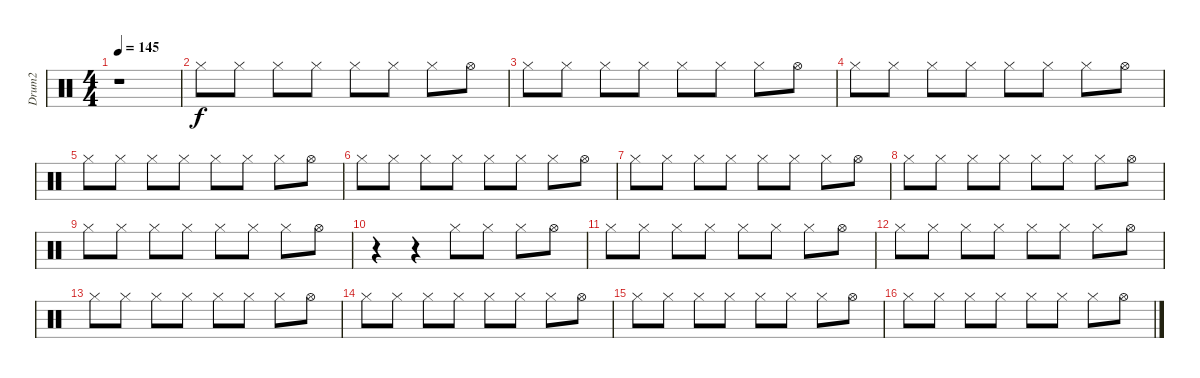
\track ("Drum2" "Drum2") {instrument percussion}
\staff {score}
\articulation defaults
\ts (4 4)
\tempo 145
\clef neutral
\ks c
r.1{dy f} |
"Hi-Hat (closed)".8 "Hi-Hat (closed)".8 "Hi-Hat (closed)".8 "Hi-Hat (closed)".8 "Hi-Hat (closed)".8 "Hi-Hat (closed)".8 "Hi-Hat (closed)".8 "Hi-Hat (open)".8 |
"Hi-Hat (closed)".8 "Hi-Hat (closed)".8 "Hi-Hat (closed)".8 "Hi-Hat (closed)".8 "Hi-Hat (closed)".8 "Hi-Hat (closed)".8 "Hi-Hat (closed)".8 "Hi-Hat (open)".8 |
"Hi-Hat (closed)".8 "Hi-Hat (closed)".8 "Hi-Hat (closed)".8 "Hi-Hat (closed)".8 "Hi-Hat (closed)".8 "Hi-Hat (closed)".8 "Hi-Hat (closed)".8 "Hi-Hat (open)".8 |
"Hi-Hat (closed)".8 "Hi-Hat (closed)".8 "Hi-Hat (closed)".8 "Hi-Hat (closed)".8 "Hi-Hat (closed)".8 "Hi-Hat (closed)".8 "Hi-Hat (closed)".8 "Hi-Hat (open)".8 |
"Hi-Hat (closed)".8 "Hi-Hat (closed)".8 "Hi-Hat (closed)".8 "Hi-Hat (closed)".8 "Hi-Hat (closed)".8 "Hi-Hat (closed)".8 "Hi-Hat (closed)".8 "Hi-Hat (open)".8 |
"Hi-Hat (closed)".8 "Hi-Hat (closed)".8 "Hi-Hat (closed)".8 "Hi-Hat (closed)".8 "Hi-Hat (closed)".8 "Hi-Hat (closed)".8 "Hi-Hat (closed)".8 "Hi-Hat (open)".8 |
"Hi-Hat (closed)".8 "Hi-Hat (closed)".8 "Hi-Hat (closed)".8 "Hi-Hat (closed)".8 "Hi-Hat (closed)".8 "Hi-Hat (closed)".8 "Hi-Hat (closed)".8 "Hi-Hat (open)".8 |
"Hi-Hat (closed)".8 "Hi-Hat (closed)".8 "Hi-Hat (closed)".8 "Hi-Hat (closed)".8 "Hi-Hat (closed)".8 "Hi-Hat (closed)".8 "Hi-Hat (closed)".8 "Hi-Hat (open)".8 |
r.4 r.4 "Hi-Hat (closed)".8 "Hi-Hat (closed)".8 "Hi-Hat (closed)".8 "Hi-Hat (open)".8 |
"Hi-Hat (closed)".8 "Hi-Hat (closed)".8 "Hi-Hat (closed)".8 "Hi-Hat (closed)".8 "Hi-Hat (closed)".8 "Hi-Hat (closed)".8 "Hi-Hat (closed)".8 "Hi-Hat (open)".8 |
"Hi-Hat (closed)".8 "Hi-Hat (closed)".8 "Hi-Hat (closed)".8 "Hi-Hat (closed)".8 "Hi-Hat (closed)".8 "Hi-Hat (closed)".8 "Hi-Hat (closed)".8 "Hi-Hat (open)".8 |
"Hi-Hat (closed)".8 "Hi-Hat (closed)".8 "Hi-Hat (closed)".8 "Hi-Hat (closed)".8 "Hi-Hat (closed)".8 "Hi-Hat (closed)".8 "Hi-Hat (closed)".8 "Hi-Hat (open)".8 |
"Hi-Hat (closed)".8 "Hi-Hat (closed)".8 "Hi-Hat (closed)".8 "Hi-Hat (closed)".8 "Hi-Hat (closed)".8 "Hi-Hat (closed)".8 "Hi-Hat (closed)".8 "Hi-Hat (open)".8 |
"Hi-Hat (closed)".8 "Hi-Hat (closed)".8 "Hi-Hat (closed)".8 "Hi-Hat (closed)".8 "Hi-Hat (closed)".8 "Hi-Hat (closed)".8 "Hi-Hat (closed)".8 "Hi-Hat (open)".8 |
"Hi-Hat (closed)".8 "Hi-Hat (closed)".8 "Hi-Hat (closed)".8 "Hi-Hat (closed)".8 "Hi-Hat (closed)".8 "Hi-Hat (closed)".8 "Hi-Hat (closed)".8 "Hi-Hat (open)".8
